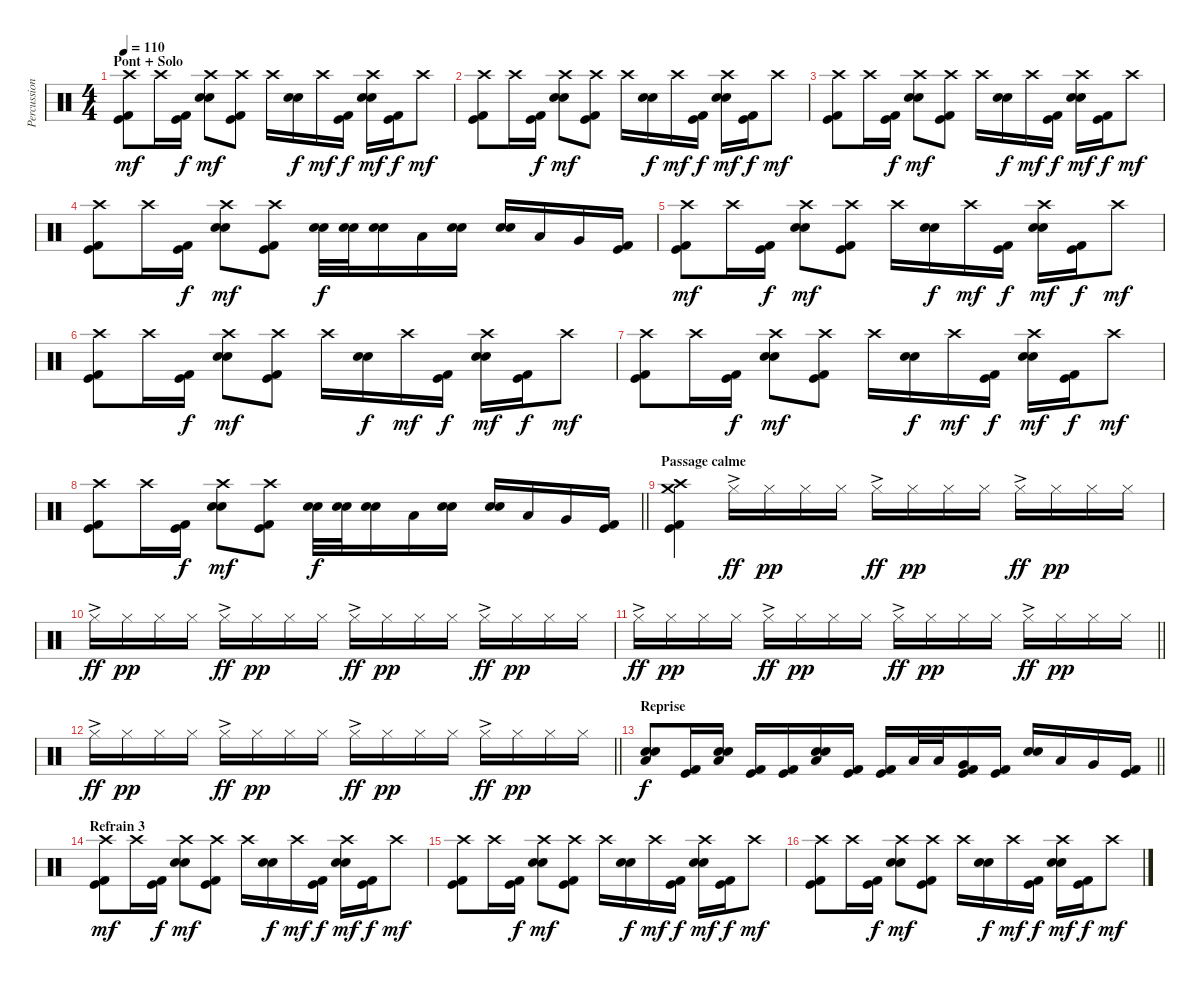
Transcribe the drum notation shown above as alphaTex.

\track ("Percussions" "Percussion") {instrument percussion}
\staff {score}
\articulation defaults
\ts (4 4)
\section ("" "Pont + Solo")
\tempo 110
\clef neutral
\ks c
("Crash high (hit)" "Kick (hit)" "Kick (hit) 2").8{dy mf} "Crash high (hit)".16 ("Kick (hit)" "Kick (hit) 2").16{dy f} ("Crash high (hit)" "Snare (hit) 2" "Electric Snare (hit)").8{dy mf} ("Crash high (hit)" "Kick (hit)" "Kick (hit) 2").8 "Crash high (hit)".16 ("Snare (hit) 2" "Electric Snare (hit)").16{dy f} "Crash high (hit)".16{dy mf} ("Kick (hit)" "Kick (hit) 2").16{dy f} ("Crash high (hit)" "Snare (hit) 2" "Electric Snare (hit)").16{dy mf} ("Kick (hit)" "Kick (hit) 2").16{dy f} "Crash high (hit)".8{dy mf} |
("Crash high (hit)" "Kick (hit)" "Kick (hit) 2").8 "Crash high (hit)".16 ("Kick (hit)" "Kick (hit) 2").16{dy f} ("Crash high (hit)" "Snare (hit) 2" "Electric Snare (hit)").8{dy mf} ("Crash high (hit)" "Kick (hit)" "Kick (hit) 2").8 "Crash high (hit)".16 ("Snare (hit) 2" "Electric Snare (hit)").16{dy f} "Crash high (hit)".16{dy mf} ("Kick (hit)" "Kick (hit) 2").16{dy f} ("Crash high (hit)" "Snare (hit) 2" "Electric Snare (hit)").16{dy mf} ("Kick (hit)" "Kick (hit) 2").16{dy f} "Crash high (hit)".8{dy mf} |
("Crash high (hit)" "Kick (hit)" "Kick (hit) 2").8 "Crash high (hit)".16 ("Kick (hit)" "Kick (hit) 2").16{dy f} ("Crash high (hit)" "Snare (hit) 2" "Electric Snare (hit)").8{dy mf} ("Crash high (hit)" "Kick (hit)" "Kick (hit) 2").8 "Crash high (hit)".16 ("Snare (hit) 2" "Electric Snare (hit)").16{dy f} "Crash high (hit)".16{dy mf} ("Kick (hit)" "Kick (hit) 2").16{dy f} ("Crash high (hit)" "Snare (hit) 2" "Electric Snare (hit)").16{dy mf} ("Kick (hit)" "Kick (hit) 2").16{dy f} "Crash high (hit)".8{dy mf} |
("Crash high (hit)" "Kick (hit)" "Kick (hit) 2").8 "Crash high (hit)".16 ("Kick (hit)" "Kick (hit) 2").16{dy f} ("Crash high (hit)" "Snare (hit) 2" "Electric Snare (hit)").8{dy mf} ("Crash high (hit)" "Kick (hit)" "Kick (hit) 2").8 ("Snare (hit) 2" "Electric Snare (hit)").32{dy f} ("Snare (hit) 2" "Electric Snare (hit)").32 ("Snare (hit) 2" "Electric Snare (hit)").16 "Low Tom (hit)".16 ("Snare (hit) 2" "Electric Snare (hit)").16 ("Snare (hit) 2" "Electric Snare (hit)").16 "Low Tom (hit)".16 "Very Low Tom (hit)".16 ("Kick (hit)" "Kick (hit) 2").16 |
("Crash high (hit)" "Kick (hit)" "Kick (hit) 2").8{dy mf} "Crash high (hit)".16 ("Kick (hit)" "Kick (hit) 2").16{dy f} ("Crash high (hit)" "Snare (hit) 2" "Electric Snare (hit)").8{dy mf} ("Crash high (hit)" "Kick (hit)" "Kick (hit) 2").8 "Crash high (hit)".16 ("Snare (hit) 2" "Electric Snare (hit)").16{dy f} "Crash high (hit)".16{dy mf} ("Kick (hit)" "Kick (hit) 2").16{dy f} ("Crash high (hit)" "Snare (hit) 2" "Electric Snare (hit)").16{dy mf} ("Kick (hit)" "Kick (hit) 2").16{dy f} "Crash high (hit)".8{dy mf} |
("Crash high (hit)" "Kick (hit)" "Kick (hit) 2").8 "Crash high (hit)".16 ("Kick (hit)" "Kick (hit) 2").16{dy f} ("Crash high (hit)" "Snare (hit) 2" "Electric Snare (hit)").8{dy mf} ("Crash high (hit)" "Kick (hit)" "Kick (hit) 2").8 "Crash high (hit)".16 ("Snare (hit) 2" "Electric Snare (hit)").16{dy f} "Crash high (hit)".16{dy mf} ("Kick (hit)" "Kick (hit) 2").16{dy f} ("Crash high (hit)" "Snare (hit) 2" "Electric Snare (hit)").16{dy mf} ("Kick (hit)" "Kick (hit) 2").16{dy f} "Crash high (hit)".8{dy mf} |
("Crash high (hit)" "Kick (hit)" "Kick (hit) 2").8 "Crash high (hit)".16 ("Kick (hit)" "Kick (hit) 2").16{dy f} ("Crash high (hit)" "Snare (hit) 2" "Electric Snare (hit)").8{dy mf} ("Crash high (hit)" "Kick (hit)" "Kick (hit) 2").8 "Crash high (hit)".16 ("Snare (hit) 2" "Electric Snare (hit)").16{dy f} "Crash high (hit)".16{dy mf} ("Kick (hit)" "Kick (hit) 2").16{dy f} ("Crash high (hit)" "Snare (hit) 2" "Electric Snare (hit)").16{dy mf} ("Kick (hit)" "Kick (hit) 2").16{dy f} "Crash high (hit)".8{dy mf} |
\barLineRight lightlight
("Crash high (hit)" "Kick (hit)" "Kick (hit) 2").8 "Crash high (hit)".16 ("Kick (hit)" "Kick (hit) 2").16{dy f} ("Crash high (hit)" "Snare (hit) 2" "Electric Snare (hit)").8{dy mf} ("Crash high (hit)" "Kick (hit)" "Kick (hit) 2").8 ("Snare (hit) 2" "Electric Snare (hit)").32{dy f} ("Snare (hit) 2" "Electric Snare (hit)").32 ("Snare (hit) 2" "Electric Snare (hit)").16 "Low Tom (hit)".16 ("Snare (hit) 2" "Electric Snare (hit)").16 ("Snare (hit) 2" "Electric Snare (hit)").16 "Low Tom (hit)".16 "Very Low Tom (hit)".16 ("Kick (hit)" "Kick (hit) 2").16 |
\section ("" "Passage calme")
("Crash medium (hit)" "Crash high (hit)" "Kick (hit) 2" "Kick (hit)").4 "Hi-Hat (closed)"{ac}.16{dy ff} "Hi-Hat (closed)".16{dy pp} "Hi-Hat (closed)".16 "Hi-Hat (closed)".16 "Hi-Hat (closed)"{ac}.16{dy ff} "Hi-Hat (closed)".16{dy pp} "Hi-Hat (closed)".16 "Hi-Hat (closed)".16 "Hi-Hat (closed)"{ac}.16{dy ff} "Hi-Hat (closed)".16{dy pp} "Hi-Hat (closed)".16 "Hi-Hat (closed)".16 |
"Hi-Hat (closed)"{ac}.16{dy ff} "Hi-Hat (closed)".16{dy pp} "Hi-Hat (closed)".16 "Hi-Hat (closed)".16 "Hi-Hat (closed)"{ac}.16{dy ff} "Hi-Hat (closed)".16{dy pp} "Hi-Hat (closed)".16 "Hi-Hat (closed)".16 "Hi-Hat (closed)"{ac}.16{dy ff} "Hi-Hat (closed)".16{dy pp} "Hi-Hat (closed)".16 "Hi-Hat (closed)".16 "Hi-Hat (closed)"{ac}.16{dy ff} "Hi-Hat (closed)".16{dy pp} "Hi-Hat (closed)".16 "Hi-Hat (closed)".16 |
\barLineRight lightlight "Hi-Hat (closed)"{ac}.16{dy ff} "Hi-Hat (closed)".16{dy pp} "Hi-Hat (closed)".16 "Hi-Hat (closed)".16 "Hi-Hat (closed)"{ac}.16{dy ff} "Hi-Hat (closed)".16{dy pp} "Hi-Hat (closed)".16 "Hi-Hat (closed)".16 "Hi-Hat (closed)"{ac}.16{dy ff} "Hi-Hat (closed)".16{dy pp} "Hi-Hat (closed)".16 "Hi-Hat (closed)".16 "Hi-Hat (closed)"{ac}.16{dy ff} "Hi-Hat (closed)".16{dy pp} "Hi-Hat (closed)".16 "Hi-Hat (closed)".16
|
\barLineRight lightlight "Hi-Hat (closed)"{ac}.16{dy ff} "Hi-Hat (closed)".16{dy pp} "Hi-Hat (closed)".16 "Hi-Hat (closed)".16 "Hi-Hat (closed)"{ac}.16{dy ff} "Hi-Hat (closed)".16{dy pp} "Hi-Hat (closed)".16 "Hi-Hat (closed)".16 "Hi-Hat (closed)"{ac}.16{dy ff} "Hi-Hat (closed)".16{dy pp} "Hi-Hat (closed)".16 "Hi-Hat (closed)".16 "Hi-Hat (closed)"{ac}.16{dy ff} "Hi-Hat (closed)".16{dy pp} "Hi-Hat (closed)".16 "Hi-Hat (closed)".16
|
\section ("" "Reprise")
\barLineRight lightlight
("Low Floor Tom (hit)" "Snare (hit) 2" "Electric Snare (hit)").8{dy f} ("Kick (hit)" "Kick (hit) 2").16 ("Low Floor Tom (hit)" "Snare (hit) 2" "Electric Snare (hit)").16 ("Kick (hit)" "Kick (hit) 2").16 ("Kick (hit)" "Kick (hit) 2").16 ("Low Floor Tom (hit)" "Snare (hit) 2" "Electric Snare (hit)").16 ("Kick (hit)" "Kick (hit) 2").16 ("Kick (hit)" "Kick (hit) 2").16 "Low Tom (hit)".32 "Low Tom (hit)".32 ("Very Low Tom (hit)" "Kick (hit)" "Kick (hit) 2").16 ("Kick (hit)" "Kick (hit) 2").16 ("Snare (hit) 2" "Electric Snare (hit)").16 "Low Tom (hit)".16 "Very Low Tom (hit)".16 ("Kick (hit)" "Kick (hit) 2").16 |
\section ("" "Refrain 3")
("Crash high (hit)" "Kick (hit)" "Kick (hit) 2").8{dy mf} "Crash high (hit)".16 ("Kick (hit)" "Kick (hit) 2").16{dy f} ("Crash high (hit)" "Snare (hit) 2" "Electric Snare (hit)").8{dy mf} ("Crash high (hit)" "Kick (hit)" "Kick (hit) 2").8 "Crash high (hit)".16 ("Snare (hit) 2" "Electric Snare (hit)").16{dy f} "Crash high (hit)".16{dy mf} ("Kick (hit)" "Kick (hit) 2").16{dy f} ("Crash high (hit)" "Snare (hit) 2" "Electric Snare (hit)").16{dy mf} ("Kick (hit)" "Kick (hit) 2").16{dy f} "Crash high (hit)".8{dy mf} |
("Crash high (hit)" "Kick (hit)" "Kick (hit) 2").8 "Crash high (hit)".16 ("Kick (hit)" "Kick (hit) 2").16{dy f} ("Crash high (hit)" "Snare (hit) 2" "Electric Snare (hit)").8{dy mf} ("Crash high (hit)" "Kick (hit)" "Kick (hit) 2").8 "Crash high (hit)".16 ("Snare (hit) 2" "Electric Snare (hit)").16{dy f} "Crash high (hit)".16{dy mf} ("Kick (hit)" "Kick (hit) 2").16{dy f} ("Crash high (hit)" "Snare (hit) 2" "Electric Snare (hit)").16{dy mf} ("Kick (hit)" "Kick (hit) 2").16{dy f} "Crash high (hit)".8{dy mf} |
("Crash high (hit)" "Kick (hit)" "Kick (hit) 2").8 "Crash high (hit)".16 ("Kick (hit)" "Kick (hit) 2").16{dy f} ("Crash high (hit)" "Snare (hit) 2" "Electric Snare (hit)").8{dy mf} ("Crash high (hit)" "Kick (hit)" "Kick (hit) 2").8 "Crash high (hit)".16 ("Snare (hit) 2" "Electric Snare (hit)").16{dy f} "Crash high (hit)".16{dy mf} ("Kick (hit)" "Kick (hit) 2").16{dy f} ("Crash high (hit)" "Snare (hit) 2" "Electric Snare (hit)").16{dy mf} ("Kick (hit)" "Kick (hit) 2").16{dy f} "Crash high (hit)".8{dy mf}
